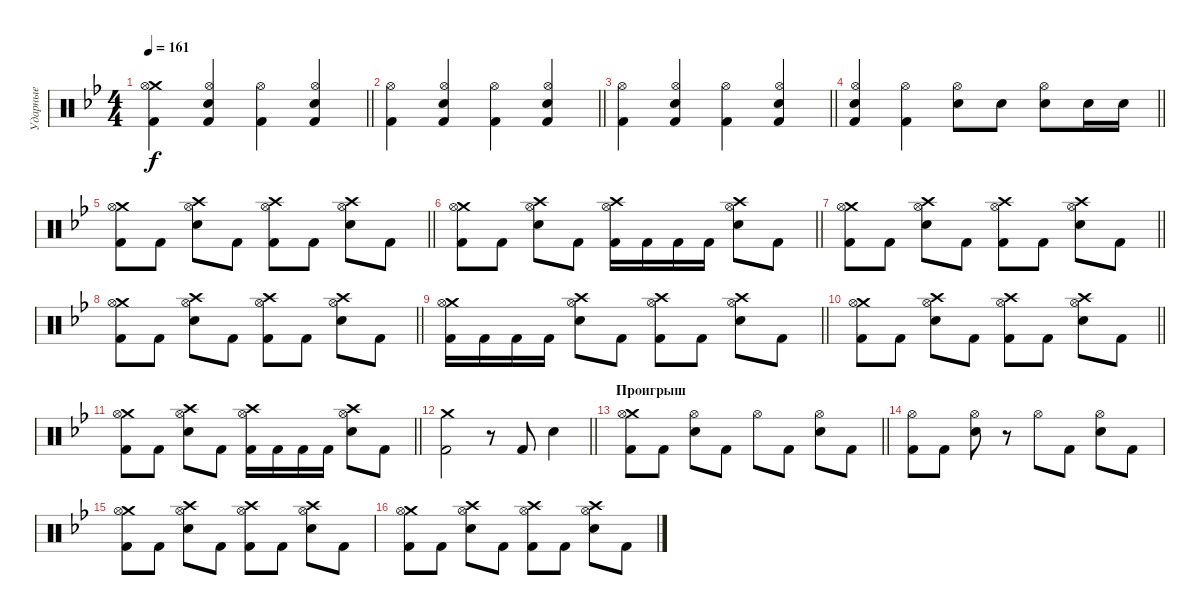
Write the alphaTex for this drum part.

\track ("Ударные" "Ударные") {instrument percussion}
\staff {score}
\articulation defaults
\ts (4 4)
\tempo 161
\clef neutral
\barLineRight lightlight
\ks gminor
("Crash medium (hit)" "Kick (hit) 2" "Hi-Hat (open)").4{dy f} ("Electric Snare (hit)" "Kick (hit) 2" "Hi-Hat (open)").4 ("Kick (hit) 2" "Hi-Hat (open)").4 ("Electric Snare (hit)" "Kick (hit) 2" "Hi-Hat (open)").4 |
\barLineRight lightlight
("Kick (hit) 2" "Hi-Hat (open)").4 ("Electric Snare (hit)" "Kick (hit) 2" "Hi-Hat (open)").4 ("Kick (hit) 2" "Hi-Hat (open)").4 ("Electric Snare (hit)" "Kick (hit) 2" "Hi-Hat (open)").4 |
\barLineRight lightlight
("Kick (hit) 2" "Hi-Hat (open)").4 ("Electric Snare (hit)" "Kick (hit) 2" "Hi-Hat (open)").4 ("Kick (hit) 2" "Hi-Hat (open)").4 ("Electric Snare (hit)" "Kick (hit) 2" "Hi-Hat (open)").4 |
\barLineRight lightlight
("Electric Snare (hit)" "Kick (hit) 2" "Hi-Hat (open)").4 ("Kick (hit) 2" "Hi-Hat (open)").4 ("Electric Snare (hit)" "Hi-Hat (open)").8 "Electric Snare (hit)".8 ("Electric Snare (hit)" "Hi-Hat (open)").8 "Electric Snare (hit)".16 "Electric Snare (hit)".16 |
\barLineRight lightlight
("Crash medium (hit)" "Kick (hit) 2" "Hi-Hat (open)").8 "Kick (hit) 2".8 ("Crash high (hit)" "Electric Snare (hit)" "Hi-Hat (open)").8 "Kick (hit) 2".8 ("Crash high (hit)" "Kick (hit) 2" "Hi-Hat (open)").8 "Kick (hit) 2".8 ("Crash high (hit)" "Electric Snare (hit)" "Hi-Hat (open)").8 "Kick (hit) 2".8 |
\barLineRight lightlight
("Crash medium (hit)" "Kick (hit) 2" "Hi-Hat (open)").8 "Kick (hit) 2".8 ("Crash high (hit)" "Electric Snare (hit)" "Hi-Hat (open)").8 "Kick (hit) 2".8 ("Crash high (hit)" "Kick (hit) 2" "Hi-Hat (open)").16 "Kick (hit) 2".16 "Kick (hit) 2".16 "Kick (hit) 2".16 ("Crash high (hit)" "Electric Snare (hit)" "Hi-Hat (open)").8 "Kick (hit) 2".8 |
\barLineRight lightlight
("Crash medium (hit)" "Kick (hit) 2" "Hi-Hat (open)").8 "Kick (hit) 2".8 ("Crash high (hit)" "Electric Snare (hit)" "Hi-Hat (open)").8 "Kick (hit) 2".8 ("Crash high (hit)" "Kick (hit) 2" "Hi-Hat (open)").8 "Kick (hit) 2".8 ("Crash high (hit)" "Electric Snare (hit)" "Hi-Hat (open)").8 "Kick (hit) 2".8 |
\barLineRight lightlight
("Crash medium (hit)" "Kick (hit) 2" "Hi-Hat (open)").8 "Kick (hit) 2".8 ("Crash high (hit)" "Electric Snare (hit)" "Hi-Hat (open)").8 "Kick (hit) 2".8 ("Crash high (hit)" "Kick (hit) 2" "Hi-Hat (open)").8 "Kick (hit) 2".8 ("Crash high (hit)" "Electric Snare (hit)" "Hi-Hat (open)").8 "Kick (hit) 2".8 |
\barLineRight lightlight
("Crash medium (hit)" "Kick (hit) 2" "Hi-Hat (open)").16 "Kick (hit) 2".16 "Kick (hit) 2".16 "Kick (hit) 2".16 ("Crash high (hit)" "Electric Snare (hit)" "Hi-Hat (open)").8 "Kick (hit) 2".8 ("Crash high (hit)" "Kick (hit) 2" "Hi-Hat (open)").8 "Kick (hit) 2".8 ("Crash high (hit)" "Electric Snare (hit)" "Hi-Hat (open)").8 "Kick (hit) 2".8 |
\barLineRight lightlight
("Crash medium (hit)" "Kick (hit) 2" "Hi-Hat (open)").8 "Kick (hit) 2".8 ("Crash high (hit)" "Electric Snare (hit)" "Hi-Hat (open)").8 "Kick (hit) 2".8 ("Crash high (hit)" "Kick (hit) 2" "Hi-Hat (open)").8 "Kick (hit) 2".8 ("Crash high (hit)" "Electric Snare (hit)" "Hi-Hat (open)").8 "Kick (hit) 2".8 |
\barLineRight lightlight
("Crash medium (hit)" "Kick (hit) 2" "Hi-Hat (open)").8 "Kick (hit) 2".8 ("Crash high (hit)" "Electric Snare (hit)" "Hi-Hat (open)").8 "Kick (hit) 2".8 ("Crash high (hit)" "Kick (hit) 2" "Hi-Hat (open)").16 "Kick (hit) 2".16 "Kick (hit) 2".16 "Kick (hit) 2".16 ("Crash high (hit)" "Electric Snare (hit)" "Hi-Hat (open)").8 "Kick (hit) 2".8 |
\barLineRight lightlight
("Crash medium (hit)" "Kick (hit) 2").2 r.8 "Kick (hit) 2".8 "Electric Snare (hit)".4 |
\section ("" "Проигрыш")
\barLineRight lightlight
("Crash medium (hit)" "Kick (hit) 2" "Hi-Hat (open)").8 "Kick (hit) 2".8 ("Electric Snare (hit)" "Hi-Hat (open)").8 "Kick (hit) 2".8 "Hi-Hat (open)".8 "Kick (hit) 2".8 ("Electric Snare (hit)" "Hi-Hat (open)").8 "Kick (hit) 2".8 |
("Kick (hit) 2" "Hi-Hat (open)").8 "Kick (hit) 2".8 ("Electric Snare (hit)" "Hi-Hat (open)").8 r.8 "Hi-Hat (open)".8 "Kick (hit) 2".8 ("Electric Snare (hit)" "Hi-Hat (open)").8 "Kick (hit) 2".8 |
("Crash medium (hit)" "Kick (hit) 2" "Hi-Hat (open)").8 "Kick (hit) 2".8 ("Crash high (hit)" "Electric Snare (hit)" "Hi-Hat (open)").8 "Kick (hit) 2".8 ("Crash high (hit)" "Kick (hit) 2" "Hi-Hat (open)").8 "Kick (hit) 2".8 ("Crash high (hit)" "Electric Snare (hit)" "Hi-Hat (open)").8 "Kick (hit) 2".8 |
("Crash medium (hit)" "Kick (hit) 2" "Hi-Hat (open)").8 "Kick (hit) 2".8 ("Crash high (hit)" "Electric Snare (hit)" "Hi-Hat (open)").8 "Kick (hit) 2".8 ("Crash high (hit)" "Kick (hit) 2" "Hi-Hat (open)").8 "Kick (hit) 2".8 ("Crash high (hit)" "Electric Snare (hit)" "Hi-Hat (open)").8 "Kick (hit) 2".8
